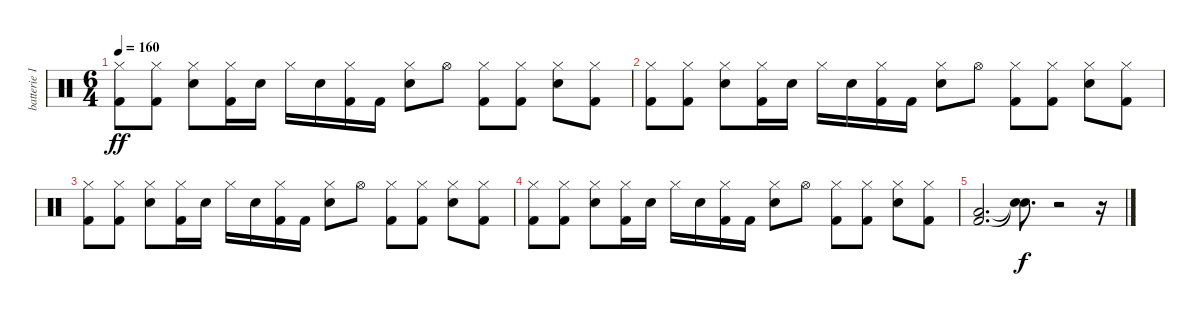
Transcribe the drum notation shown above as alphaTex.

\track ("batterie 1" "batterie 1") {instrument percussion}
\staff {score}
\articulation defaults
\ts (6 4)
\tempo 160
\clef neutral
\ks c
("Kick (hit) 2" "Hi-Hat (closed)").8{dy ff} ("Kick (hit) 2" "Hi-Hat (closed)").8 ("Electric Snare (hit)" "Hi-Hat (closed)").8 ("Kick (hit) 2" "Hi-Hat (closed)").16 "Electric Snare (hit)".16 "Hi-Hat (closed)".16 "Electric Snare (hit)".16 ("Kick (hit) 2" "Hi-Hat (closed)").16 "Kick (hit) 2".16 ("Electric Snare (hit)" "Hi-Hat (closed)").8 "Hi-Hat (open)".8 ("Kick (hit) 2" "Hi-Hat (closed)").8 ("Kick (hit) 2" "Hi-Hat (closed)").8 ("Electric Snare (hit)" "Hi-Hat (closed)").8 ("Kick (hit) 2" "Hi-Hat (closed)").8 |
("Kick (hit) 2" "Hi-Hat (closed)").8 ("Kick (hit) 2" "Hi-Hat (closed)").8 ("Electric Snare (hit)" "Hi-Hat (closed)").8 ("Kick (hit) 2" "Hi-Hat (closed)").16 "Electric Snare (hit)".16 "Hi-Hat (closed)".16 "Electric Snare (hit)".16 ("Kick (hit) 2" "Hi-Hat (closed)").16 "Kick (hit) 2".16 ("Electric Snare (hit)" "Hi-Hat (closed)").8 "Hi-Hat (open)".8 ("Kick (hit) 2" "Hi-Hat (closed)").8 ("Kick (hit) 2" "Hi-Hat (closed)").8 ("Electric Snare (hit)" "Hi-Hat (closed)").8 ("Kick (hit) 2" "Hi-Hat (closed)").8 |
("Kick (hit) 2" "Hi-Hat (closed)").8 ("Kick (hit) 2" "Hi-Hat (closed)").8 ("Electric Snare (hit)" "Hi-Hat (closed)").8 ("Kick (hit) 2" "Hi-Hat (closed)").16 "Electric Snare (hit)".16 "Hi-Hat (closed)".16 "Electric Snare (hit)".16 ("Kick (hit) 2" "Hi-Hat (closed)").16 "Kick (hit) 2".16 ("Electric Snare (hit)" "Hi-Hat (closed)").8 "Hi-Hat (open)".8 ("Kick (hit) 2" "Hi-Hat (closed)").8 ("Kick (hit) 2" "Hi-Hat (closed)").8 ("Electric Snare (hit)" "Hi-Hat (closed)").8 ("Kick (hit) 2" "Hi-Hat (closed)").8 |
("Kick (hit) 2" "Hi-Hat (closed)").8 ("Kick (hit) 2" "Hi-Hat (closed)").8 ("Electric Snare (hit)" "Hi-Hat (closed)").8 ("Kick (hit) 2" "Hi-Hat (closed)").16 "Electric Snare (hit)".16 "Hi-Hat (closed)".16 "Electric Snare (hit)".16 ("Kick (hit) 2" "Hi-Hat (closed)").16 "Kick (hit) 2".16 ("Electric Snare (hit)" "Hi-Hat (closed)").8 "Hi-Hat (open)".8 ("Kick (hit) 2" "Hi-Hat (closed)").8 ("Kick (hit) 2" "Hi-Hat (closed)").8 ("Electric Snare (hit)" "Hi-Hat (closed)").8 ("Kick (hit) 2" "Hi-Hat (closed)").8 |
("Kick (hit) 2" "Low Tom (hit)").2{d} ("Snare (hit)"{t} "Snare (hit)"{t}).8{d dy f} r.2 r.16
